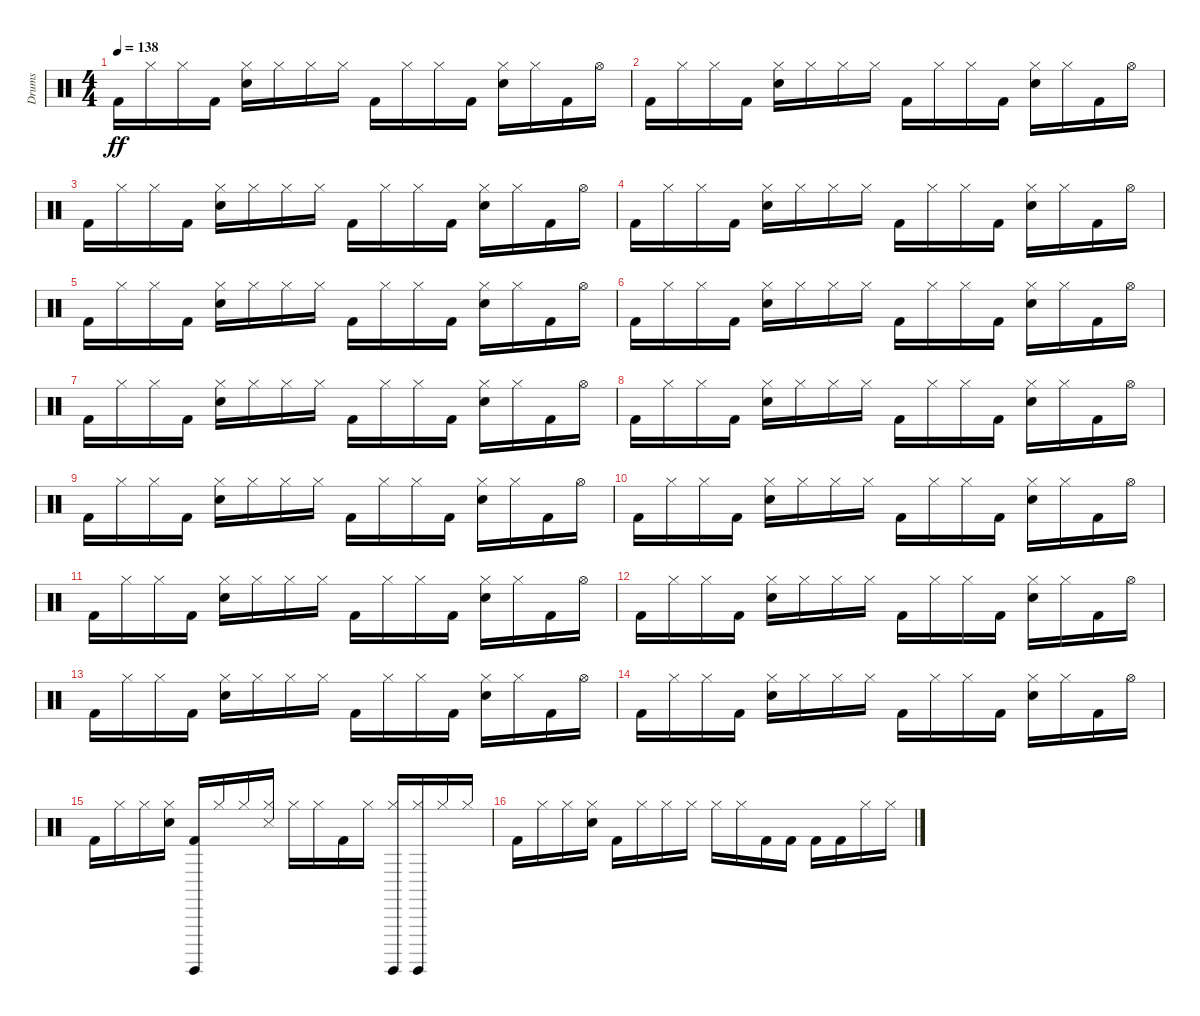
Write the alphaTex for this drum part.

\track ("Drums" "Drums") {instrument percussion}
\staff {score}
\articulation defaults
\ts (4 4)
\tempo 138
\clef neutral
\ks c "Kick (hit) 2".16{dy ff} "Hi-Hat (closed)".16 "Hi-Hat (closed)".16 "Kick (hit) 2".16
("Electric Snare (hit)" "Hi-Hat (closed)").16 "Hi-Hat (closed)".16 "Hi-Hat (closed)".16 "Hi-Hat (closed)".16 "Kick (hit) 2".16 "Hi-Hat (closed)".16 "Hi-Hat (closed)".16 "Kick (hit) 2".16 ("Electric Snare (hit)" "Hi-Hat (closed)").16 "Hi-Hat (closed)".16 "Kick (hit) 2".16 "Hi-Hat (open)".16 |
"Kick (hit) 2".16 "Hi-Hat (closed)".16 "Hi-Hat (closed)".16 "Kick (hit) 2".16 ("Electric Snare (hit)" "Hi-Hat (closed)").16 "Hi-Hat (closed)".16 "Hi-Hat (closed)".16 "Hi-Hat (closed)".16 "Kick (hit) 2".16 "Hi-Hat (closed)".16 "Hi-Hat (closed)".16 "Kick (hit) 2".16 ("Electric Snare (hit)" "Hi-Hat (closed)").16 "Hi-Hat (closed)".16 "Kick (hit) 2".16 "Hi-Hat (open)".16 |
"Kick (hit) 2".16 "Hi-Hat (closed)".16 "Hi-Hat (closed)".16 "Kick (hit) 2".16 ("Electric Snare (hit)" "Hi-Hat (closed)").16 "Hi-Hat (closed)".16 "Hi-Hat (closed)".16 "Hi-Hat (closed)".16 "Kick (hit) 2".16 "Hi-Hat (closed)".16 "Hi-Hat (closed)".16 "Kick (hit) 2".16 ("Electric Snare (hit)" "Hi-Hat (closed)").16 "Hi-Hat (closed)".16 "Kick (hit) 2".16 "Hi-Hat (open)".16 |
"Kick (hit) 2".16 "Hi-Hat (closed)".16 "Hi-Hat (closed)".16 "Kick (hit) 2".16 ("Electric Snare (hit)" "Hi-Hat (closed)").16 "Hi-Hat (closed)".16 "Hi-Hat (closed)".16 "Hi-Hat (closed)".16 "Kick (hit) 2".16 "Hi-Hat (closed)".16 "Hi-Hat (closed)".16 "Kick (hit) 2".16 ("Electric Snare (hit)" "Hi-Hat (closed)").16 "Hi-Hat (closed)".16 "Kick (hit) 2".16 "Hi-Hat (open)".16 |
"Kick (hit) 2".16 "Hi-Hat (closed)".16 "Hi-Hat (closed)".16 "Kick (hit) 2".16 ("Electric Snare (hit)" "Hi-Hat (closed)").16 "Hi-Hat (closed)".16 "Hi-Hat (closed)".16 "Hi-Hat (closed)".16 "Kick (hit) 2".16 "Hi-Hat (closed)".16 "Hi-Hat (closed)".16 "Kick (hit) 2".16 ("Electric Snare (hit)" "Hi-Hat (closed)").16 "Hi-Hat (closed)".16 "Kick (hit) 2".16 "Hi-Hat (open)".16 |
"Kick (hit) 2".16 "Hi-Hat (closed)".16 "Hi-Hat (closed)".16 "Kick (hit) 2".16 ("Electric Snare (hit)" "Hi-Hat (closed)").16 "Hi-Hat (closed)".16 "Hi-Hat (closed)".16 "Hi-Hat (closed)".16 "Kick (hit) 2".16 "Hi-Hat (closed)".16 "Hi-Hat (closed)".16 "Kick (hit) 2".16 ("Electric Snare (hit)" "Hi-Hat (closed)").16 "Hi-Hat (closed)".16 "Kick (hit) 2".16 "Hi-Hat (open)".16 |
"Kick (hit) 2".16 "Hi-Hat (closed)".16 "Hi-Hat (closed)".16 "Kick (hit) 2".16 ("Electric Snare (hit)" "Hi-Hat (closed)").16 "Hi-Hat (closed)".16 "Hi-Hat (closed)".16 "Hi-Hat (closed)".16 "Kick (hit) 2".16 "Hi-Hat (closed)".16 "Hi-Hat (closed)".16 "Kick (hit) 2".16 ("Electric Snare (hit)" "Hi-Hat (closed)").16 "Hi-Hat (closed)".16 "Kick (hit) 2".16 "Hi-Hat (open)".16 |
"Kick (hit) 2".16 "Hi-Hat (closed)".16 "Hi-Hat (closed)".16 "Kick (hit) 2".16 ("Electric Snare (hit)" "Hi-Hat (closed)").16 "Hi-Hat (closed)".16 "Hi-Hat (closed)".16 "Hi-Hat (closed)".16 "Kick (hit) 2".16 "Hi-Hat (closed)".16 "Hi-Hat (closed)".16 "Kick (hit) 2".16 ("Electric Snare (hit)" "Hi-Hat (closed)").16 "Hi-Hat (closed)".16 "Kick (hit) 2".16 "Hi-Hat (open)".16 |
"Kick (hit) 2".16 "Hi-Hat (closed)".16 "Hi-Hat (closed)".16 "Kick (hit) 2".16 ("Electric Snare (hit)" "Hi-Hat (closed)").16 "Hi-Hat (closed)".16 "Hi-Hat (closed)".16 "Hi-Hat (closed)".16 "Kick (hit) 2".16 "Hi-Hat (closed)".16 "Hi-Hat (closed)".16 "Kick (hit) 2".16 ("Electric Snare (hit)" "Hi-Hat (closed)").16 "Hi-Hat (closed)".16 "Kick (hit) 2".16 "Hi-Hat (open)".16 |
"Kick (hit) 2".16 "Hi-Hat (closed)".16 "Hi-Hat (closed)".16 "Kick (hit) 2".16 ("Electric Snare (hit)" "Hi-Hat (closed)").16 "Hi-Hat (closed)".16 "Hi-Hat (closed)".16 "Hi-Hat (closed)".16 "Kick (hit) 2".16 "Hi-Hat (closed)".16 "Hi-Hat (closed)".16 "Kick (hit) 2".16 ("Electric Snare (hit)" "Hi-Hat (closed)").16 "Hi-Hat (closed)".16 "Kick (hit) 2".16 "Hi-Hat (open)".16 |
"Kick (hit) 2".16 "Hi-Hat (closed)".16 "Hi-Hat (closed)".16 "Kick (hit) 2".16 ("Electric Snare (hit)" "Hi-Hat (closed)").16 "Hi-Hat (closed)".16 "Hi-Hat (closed)".16 "Hi-Hat (closed)".16 "Kick (hit) 2".16 "Hi-Hat (closed)".16 "Hi-Hat (closed)".16 "Kick (hit) 2".16 ("Electric Snare (hit)" "Hi-Hat (closed)").16 "Hi-Hat (closed)".16 "Kick (hit) 2".16 "Hi-Hat (open)".16 |
"Kick (hit) 2".16 "Hi-Hat (closed)".16 "Hi-Hat (closed)".16 "Kick (hit) 2".16 ("Electric Snare (hit)" "Hi-Hat (closed)").16 "Hi-Hat (closed)".16 "Hi-Hat (closed)".16 "Hi-Hat (closed)".16 "Kick (hit) 2".16 "Hi-Hat (closed)".16 "Hi-Hat (closed)".16 "Kick (hit) 2".16 ("Electric Snare (hit)" "Hi-Hat (closed)").16 "Hi-Hat (closed)".16 "Kick (hit) 2".16 "Hi-Hat (open)".16 |
"Kick (hit) 2".16 "Hi-Hat (closed)".16 "Hi-Hat (closed)".16 "Kick (hit) 2".16 ("Electric Snare (hit)" "Hi-Hat (closed)").16 "Hi-Hat (closed)".16 "Hi-Hat (closed)".16 "Hi-Hat (closed)".16 "Kick (hit) 2".16 "Hi-Hat (closed)".16 "Hi-Hat (closed)".16 "Kick (hit) 2".16 ("Electric Snare (hit)" "Hi-Hat (closed)").16 "Hi-Hat (closed)".16 "Kick (hit) 2".16 "Hi-Hat (open)".16 |
"Kick (hit) 2".16 "Hi-Hat (closed)".16 "Hi-Hat (closed)".16 "Kick (hit) 2".16 ("Electric Snare (hit)" "Hi-Hat (closed)").16 "Hi-Hat (closed)".16 "Hi-Hat (closed)".16 "Hi-Hat (closed)".16 "Kick (hit) 2".16 "Hi-Hat (closed)".16 "Hi-Hat (closed)".16 "Kick (hit) 2".16 ("Electric Snare (hit)" "Hi-Hat (closed)").16 "Hi-Hat (closed)".16 "Kick (hit) 2".16 "Hi-Hat (open)".16 |
"Kick (hit) 2".16 "Hi-Hat (closed)".16 "Hi-Hat (closed)".16 ("Electric Snare (hit)" "Hi-Hat (closed)").16 ("Kick (hit) 2" "Surdo (hit)").16 "Hi-Hat (closed)".16 "Hi-Hat (closed)".16 ("Snare (side stick) 3" "Hi-Hat (closed)").16 "Hi-Hat (closed)".16 "Hi-Hat (closed)".16 "Kick (hit) 2".16 "Hi-Hat (closed)".16 ("Hi-Hat (closed)" "Surdo (hit)").16 ("Hi-Hat (closed)" "Surdo (hit)").16 "Hi-Hat (closed)".16 "Hi-Hat (closed)".16 |
"Kick (hit) 2".16 "Hi-Hat (closed)".16 "Hi-Hat (closed)".16 ("Electric Snare (hit)" "Hi-Hat (closed)").16 "Kick (hit) 2".16 "Hi-Hat (closed)".16 "Hi-Hat (closed)".16 "Hi-Hat (closed)".16 "Hi-Hat (closed)".16 "Hi-Hat (closed)".16 "Kick (hit) 2".16 "Kick (hit) 2".16 "Kick (hit) 2".16 "Kick (hit) 2".16 "Hi-Hat (closed)".16 "Hi-Hat (closed)".16
